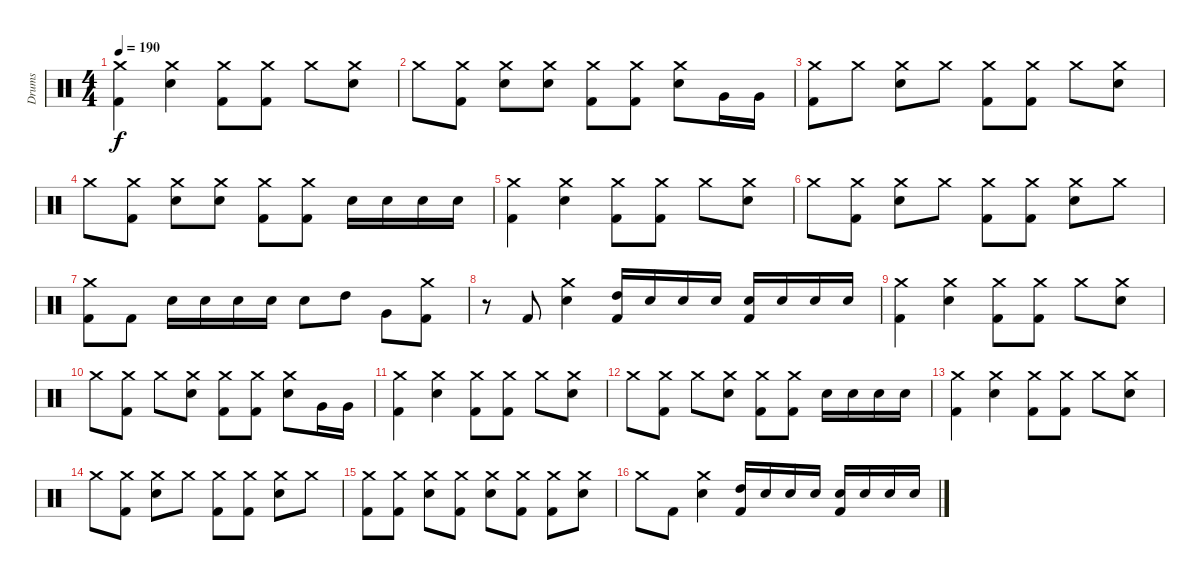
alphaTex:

\track ("Drums" "Drums") {instrument percussion}
\staff {score}
\articulation defaults
\ts (4 4)
\tempo 190
\clef neutral
\ks c
("Crash medium (hit)" "Kick (hit) 2").4{dy f} ("Crash medium (hit)" "Snare (hit) 2").4 ("Crash medium (hit)" "Kick (hit) 2").8 ("Crash medium (hit)" "Kick (hit) 2").8 "Crash medium (hit)".8 ("Crash medium (hit)" "Snare (hit) 2").8 |
"Crash medium (hit)".8 ("Crash medium (hit)" "Kick (hit) 2").8 ("Crash medium (hit)" "Snare (hit) 2").8 ("Crash medium (hit)" "Snare (hit) 2").8 ("Crash medium (hit)" "Kick (hit) 2").8 ("Crash medium (hit)" "Kick (hit) 2").8 ("Crash medium (hit)" "Snare (hit) 2").8 "Very Low Tom (hit)".16 "Very Low Tom (hit)".16 |
("Crash medium (hit)" "Kick (hit) 2").8 "Crash medium (hit)".8 ("Crash medium (hit)" "Snare (hit) 2").8 "Crash medium (hit)".8 ("Crash medium (hit)" "Kick (hit) 2").8 ("Crash medium (hit)" "Kick (hit) 2").8 "Crash medium (hit)".8 ("Crash medium (hit)" "Snare (hit) 2").8 |
"Crash medium (hit)".8 ("Crash medium (hit)" "Kick (hit) 2").8 ("Crash medium (hit)" "Snare (hit) 2").8 ("Crash medium (hit)" "Snare (hit) 2").8 ("Crash medium (hit)" "Kick (hit) 2").8 ("Crash medium (hit)" "Kick (hit) 2").8 "Snare (hit) 2".16 "Snare (hit) 2".16 "Snare (hit) 2".16 "Snare (hit) 2".16 |
("Crash medium (hit)" "Kick (hit) 2").4 ("Crash medium (hit)" "Snare (hit) 2").4 ("Crash medium (hit)" "Kick (hit) 2").8 ("Crash medium (hit)" "Kick (hit) 2").8 "Crash medium (hit)".8 ("Crash medium (hit)" "Snare (hit) 2").8 |
"Crash medium (hit)".8 ("Crash medium (hit)" "Kick (hit) 2").8 ("Crash medium (hit)" "Snare (hit) 2").8 "Crash medium (hit)".8 ("Crash medium (hit)" "Kick (hit) 2").8 ("Crash medium (hit)" "Kick (hit) 2").8 ("Crash medium (hit)" "Snare (hit) 2").8 "Crash medium (hit)".8 |
("Crash medium (hit)" "Kick (hit) 2").8 "Kick (hit) 2".8 "Snare (hit) 2".16 "Snare (hit) 2".16 "Snare (hit) 2".16 "Snare (hit) 2".16 "Snare (hit) 2".8 "High Tom (hit)".8 "Very Low Tom (hit)".8 ("Crash medium (hit)" "Kick (hit) 2").8 |
r.8 "Kick (hit) 2".8 ("Crash medium (hit)" "Snare (hit) 2").4 ("High Tom (hit)" "Kick (hit) 2").16 "Snare (hit) 2".16 "Snare (hit) 2".16 "Snare (hit) 2".16 ("Snare (hit) 2" "Kick (hit) 2").16 "Snare (hit) 2".16 "Snare (hit) 2".16 "Snare (hit) 2".16 |
("Crash medium (hit)" "Kick (hit) 2").4 ("Crash medium (hit)" "Snare (hit) 2").4 ("Crash medium (hit)" "Kick (hit) 2").8 ("Crash medium (hit)" "Kick (hit) 2").8 "Crash medium (hit)".8 ("Crash medium (hit)" "Snare (hit) 2").8 |
"Crash medium (hit)".8 ("Crash medium (hit)" "Kick (hit) 2").8 "Crash medium (hit)".8 ("Crash medium (hit)" "Snare (hit) 2").8 ("Crash medium (hit)" "Kick (hit) 2").8 ("Crash medium (hit)" "Kick (hit) 2").8 ("Crash medium (hit)" "Snare (hit) 2").8 "Very Low Tom (hit)".16 "Very Low Tom (hit)".16 |
("Crash medium (hit)" "Kick (hit) 2").4 ("Crash medium (hit)" "Snare (hit) 2").4 ("Crash medium (hit)" "Kick (hit) 2").8 ("Crash medium (hit)" "Kick (hit) 2").8 "Crash medium (hit)".8 ("Crash medium (hit)" "Snare (hit) 2").8 |
"Crash medium (hit)".8 ("Crash medium (hit)" "Kick (hit) 2").8 "Crash medium (hit)".8 ("Crash medium (hit)" "Snare (hit) 2").8 ("Crash medium (hit)" "Kick (hit) 2").8 ("Crash medium (hit)" "Kick (hit) 2").8 "Snare (hit) 2".16 "Snare (hit) 2".16 "Snare (hit) 2".16 "Snare (hit) 2".16 |
("Crash medium (hit)" "Kick (hit) 2").4 ("Crash medium (hit)" "Snare (hit) 2").4 ("Crash medium (hit)" "Kick (hit) 2").8 ("Crash medium (hit)" "Kick (hit) 2").8 "Crash medium (hit)".8 ("Crash medium (hit)" "Snare (hit) 2").8 |
"Crash medium (hit)".8 ("Crash medium (hit)" "Kick (hit) 2").8 ("Crash medium (hit)" "Snare (hit) 2").8 "Crash medium (hit)".8 ("Crash medium (hit)" "Kick (hit) 2").8 ("Crash medium (hit)" "Kick (hit) 2").8 ("Crash medium (hit)" "Snare (hit) 2").8 "Crash medium (hit)".8 |
("Crash medium (hit)" "Kick (hit) 2").8 ("Crash medium (hit)" "Kick (hit) 2").8 ("Crash medium (hit)" "Snare (hit) 2").8 ("Crash medium (hit)" "Kick (hit) 2").8 ("Crash medium (hit)" "Snare (hit) 2").8 ("Crash medium (hit)" "Kick (hit) 2").8 ("Crash medium (hit)" "Kick (hit) 2").8 ("Crash medium (hit)" "Snare (hit) 2").8 |
"Crash medium (hit)".8 "Kick (hit) 2".8 ("Crash medium (hit)" "Snare (hit) 2").4 ("High Tom (hit)" "Kick (hit) 2").16 "Snare (hit) 2".16 "Snare (hit) 2".16 "Snare (hit) 2".16 ("Snare (hit) 2" "Kick (hit) 2").16 "Snare (hit) 2".16 "Snare (hit) 2".16 "Snare (hit) 2".16
